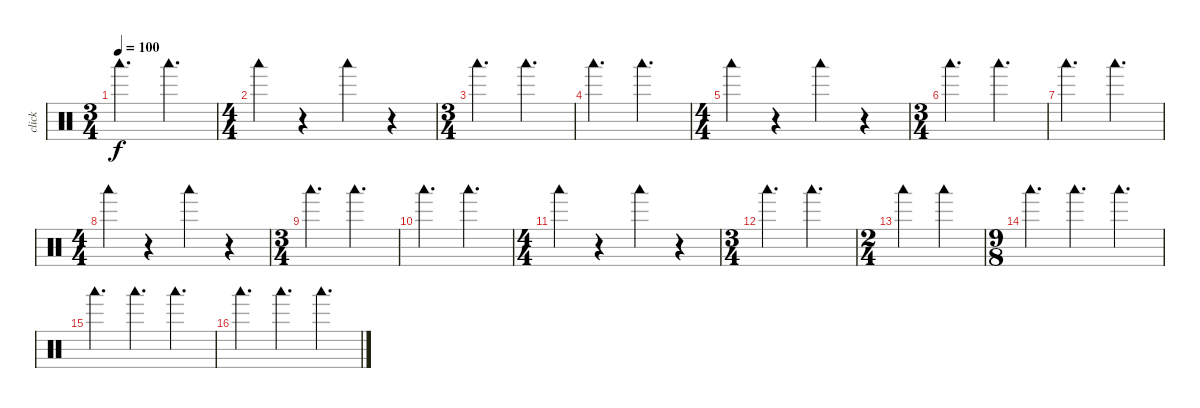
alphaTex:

\track ("click" "click") {mute instrument percussion}
\staff {score}
\articulation defaults
\ts (3 4)
\tempo 100
\clef neutral
\ks c "Woodblock low (hit)".4{d dy f} "Woodblock low (hit)".4{d}
|
\ts (4 4)
"Woodblock low (hit)".4 r.4 "Woodblock low (hit)".4 r.4 |
\ts (3 4)
"Woodblock low (hit)".4{d} "Woodblock low (hit)".4{d} |
"Woodblock low (hit)".4{d} "Woodblock low (hit)".4{d} |
\ts (4 4)
"Woodblock low (hit)".4 r.4 "Woodblock low (hit)".4 r.4 |
\ts (3 4)
"Woodblock low (hit)".4{d} "Woodblock low (hit)".4{d} |
"Woodblock low (hit)".4{d} "Woodblock low (hit)".4{d} |
\ts (4 4)
"Woodblock low (hit)".4 r.4 "Woodblock low (hit)".4 r.4 |
\ts (3 4)
"Woodblock low (hit)".4{d} "Woodblock low (hit)".4{d} |
"Woodblock low (hit)".4{d} "Woodblock low (hit)".4{d} |
\ts (4 4)
"Woodblock low (hit)".4 r.4 "Woodblock low (hit)".4 r.4 |
\ts (3 4)
"Woodblock low (hit)".4{d} "Woodblock low (hit)".4{d} |
\ts (2 4)
"Woodblock low (hit)".4 "Woodblock low (hit)".4 |
\ts (9 8)
"Woodblock low (hit)".4{d} "Woodblock low (hit)".4{d} "Woodblock low (hit)".4{d} |
"Woodblock low (hit)".4{d} "Woodblock low (hit)".4{d} "Woodblock low (hit)".4{d} |
"Woodblock low (hit)".4{d} "Woodblock low (hit)".4{d} "Woodblock low (hit)".4{d}
